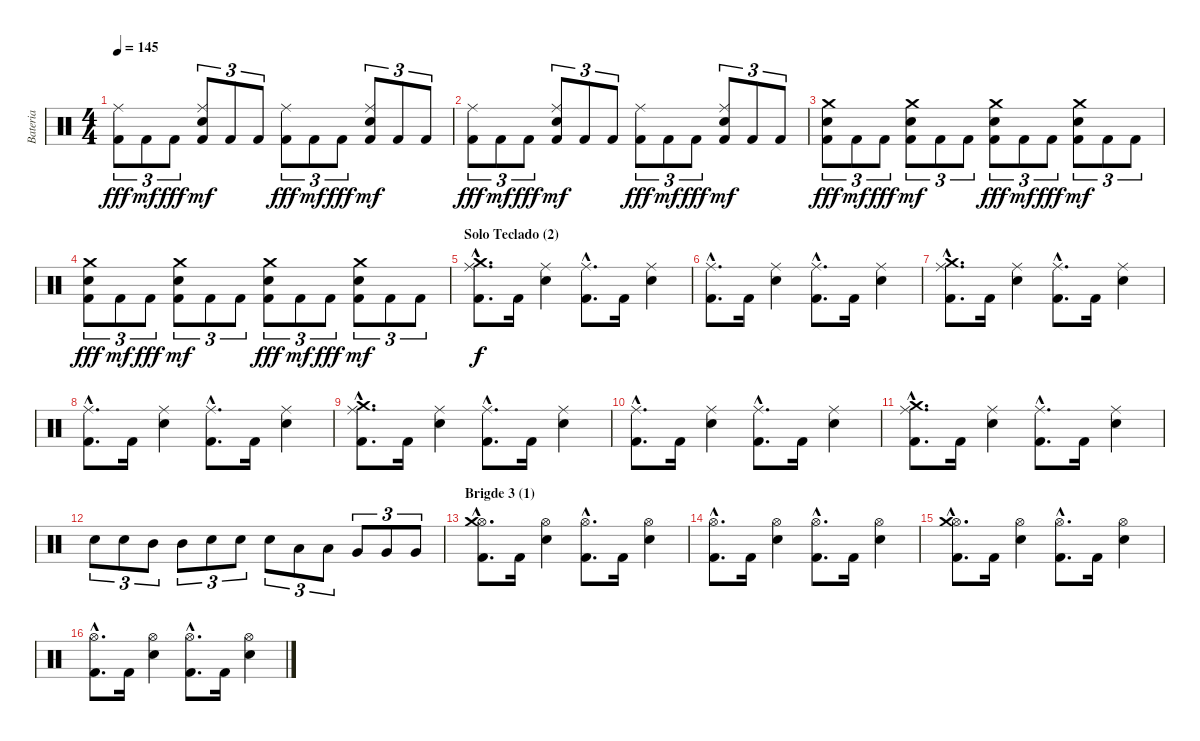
\track ("Bateria" "Bateria") {instrument percussion}
\staff {score}
\articulation defaults
\ts (4 4)
\tempo 145
\clef neutral
\ks c
("Kick (hit) 2" "Ride (middle)").8{tu (3 2) dy fff} "Kick (hit) 2".8{tu (3 2) dy mf} "Kick (hit) 2".8{tu (3 2) dy fff} ("Kick (hit) 2" "Snare (hit) 2" "Ride (middle)").8{tu (3 2) dy mf} "Kick (hit) 2".8{tu (3 2)} "Kick (hit) 2".8{tu (3 2)} ("Kick (hit) 2" "Ride (middle)").8{tu (3 2) dy fff} "Kick (hit) 2".8{tu (3 2) dy mf} "Kick (hit) 2".8{tu (3 2) dy fff} ("Kick (hit) 2" "Snare (hit) 2" "Ride (middle)").8{tu (3 2) dy mf} "Kick (hit) 2".8{tu (3 2)} "Kick (hit) 2".8{tu (3 2)} |
("Kick (hit) 2" "Ride (middle)").8{tu (3 2) dy fff} "Kick (hit) 2".8{tu (3 2) dy mf} "Kick (hit) 2".8{tu (3 2) dy fff} ("Kick (hit) 2" "Snare (hit) 2" "Ride (middle)").8{tu (3 2) dy mf} "Kick (hit) 2".8{tu (3 2)} "Kick (hit) 2".8{tu (3 2)} ("Kick (hit) 2" "Ride (middle)").8{tu (3 2) dy fff} "Kick (hit) 2".8{tu (3 2) dy mf} "Kick (hit) 2".8{tu (3 2) dy fff} ("Kick (hit) 2" "Snare (hit) 2" "Ride (middle)").8{tu (3 2) dy mf} "Kick (hit) 2".8{tu (3 2)} "Kick (hit) 2".8{tu (3 2)} |
("Kick (hit) 2" "Snare (hit) 2" "Crash medium (hit)").8{tu (3 2) dy fff} "Kick (hit) 2".8{tu (3 2) dy mf} "Kick (hit) 2".8{tu (3 2) dy fff} ("Kick (hit) 2" "Snare (hit) 2" "Crash medium (hit)").8{tu (3 2) dy mf} "Kick (hit) 2".8{tu (3 2)} "Kick (hit) 2".8{tu (3 2)} ("Kick (hit) 2" "Snare (hit) 2" "Crash medium (hit)").8{tu (3 2) dy fff} "Kick (hit) 2".8{tu (3 2) dy mf} "Kick (hit) 2".8{tu (3 2) dy fff} ("Kick (hit) 2" "Snare (hit) 2" "Crash medium (hit)").8{tu (3 2) dy mf} "Kick (hit) 2".8{tu (3 2)} "Kick (hit) 2".8{tu (3 2)} |
("Kick (hit) 2" "Snare (hit) 2" "Crash medium (hit)").8{tu (3 2) dy fff} "Kick (hit) 2".8{tu (3 2) dy mf} "Kick (hit) 2".8{tu (3 2) dy fff} ("Kick (hit) 2" "Snare (hit) 2" "Crash medium (hit)").8{tu (3 2) dy mf} "Kick (hit) 2".8{tu (3 2)} "Kick (hit) 2".8{tu (3 2)} ("Kick (hit) 2" "Snare (hit) 2" "Crash medium (hit)").8{tu (3 2) dy fff} "Kick (hit) 2".8{tu (3 2) dy mf} "Kick (hit) 2".8{tu (3 2) dy fff} ("Kick (hit) 2" "Snare (hit) 2" "Crash medium (hit)").8{tu (3 2) dy mf} "Kick (hit) 2".8{tu (3 2)} "Kick (hit) 2".8{tu (3 2)} |
\section ("" "Solo Teclado (2)")
("Ride (middle)"{hac} "Crash medium (hit)"{hac} "Kick (hit) 2"{hac}).8{d dy f} "Kick (hit) 2".16 ("Ride (middle)" "Snare (hit) 2").4 ("Ride (middle)"{hac} "Kick (hit) 2"{hac}).8{d} "Kick (hit) 2".16 ("Ride (middle)" "Snare (hit) 2").4 |
("Ride (middle)"{hac} "Kick (hit) 2"{hac}).8{d} "Kick (hit) 2".16 ("Ride (middle)" "Snare (hit) 2").4 ("Ride (middle)"{hac} "Kick (hit) 2"{hac}).8{d} "Kick (hit) 2".16 ("Ride (middle)" "Snare (hit) 2").4 |
("Ride (middle)"{hac} "Crash medium (hit)"{hac} "Kick (hit) 2"{hac}).8{d} "Kick (hit) 2".16 ("Ride (middle)" "Snare (hit) 2").4 ("Ride (middle)"{hac} "Kick (hit) 2"{hac}).8{d} "Kick (hit) 2".16 ("Ride (middle)" "Snare (hit) 2").4 |
("Ride (middle)"{hac} "Kick (hit) 2"{hac}).8{d} "Kick (hit) 2".16 ("Ride (middle)" "Snare (hit) 2").4 ("Ride (middle)"{hac} "Kick (hit) 2"{hac}).8{d} "Kick (hit) 2".16 ("Ride (middle)" "Snare (hit) 2").4 |
("Ride (middle)"{hac} "Crash medium (hit)"{hac} "Kick (hit) 2"{hac}).8{d} "Kick (hit) 2".16 ("Ride (middle)" "Snare (hit) 2").4 ("Ride (middle)"{hac} "Kick (hit) 2"{hac}).8{d} "Kick (hit) 2".16 ("Ride (middle)" "Snare (hit) 2").4 |
("Ride (middle)"{hac} "Kick (hit) 2"{hac}).8{d} "Kick (hit) 2".16 ("Ride (middle)" "Snare (hit) 2").4 ("Ride (middle)"{hac} "Kick (hit) 2"{hac}).8{d} "Kick (hit) 2".16 ("Ride (middle)" "Snare (hit) 2").4 |
("Ride (middle)"{hac} "Crash medium (hit)"{hac} "Kick (hit) 2"{hac}).8{d} "Kick (hit) 2".16 ("Ride (middle)" "Snare (hit) 2").4 ("Ride (middle)"{hac} "Kick (hit) 2"{hac}).8{d} "Kick (hit) 2".16 ("Ride (middle)" "Snare (hit) 2").4 |
"Snare (hit) 2".8{tu (3 2)} "Snare (hit) 2".8{tu (3 2)} "Mid Tom (hit)".8{tu (3 2)} "Mid Tom (hit)".8{tu (3 2)} "Snare (hit) 2".8{tu (3 2)} "Snare (hit) 2".8{tu (3 2)} "Snare (hit) 2".8{tu (3 2)} "Low Tom (hit)".8{tu (3 2)} "Low Tom (hit)".8{tu (3 2)} "Very Low Tom (hit)".8{tu (3 2)} "Very Low Tom (hit)".8{tu (3 2)} "Very Low Tom (hit)".8{tu (3 2)} |
\section ("" "Brigde 3 (1)")
("Hi-Hat (open)"{hac} "Crash medium (hit)"{hac} "Kick (hit) 2"{hac}).8{d} "Kick (hit) 2".16 ("Hi-Hat (open)" "Snare (hit) 2").4 ("Hi-Hat (open)"{hac} "Kick (hit) 2"{hac}).8{d} "Kick (hit) 2".16 ("Hi-Hat (open)" "Snare (hit) 2").4 |
("Hi-Hat (open)"{hac} "Kick (hit) 2"{hac}).8{d} "Kick (hit) 2".16 ("Hi-Hat (open)" "Snare (hit) 2").4 ("Hi-Hat (open)"{hac} "Kick (hit) 2"{hac}).8{d} "Kick (hit) 2".16 ("Hi-Hat (open)" "Snare (hit) 2").4 |
("Hi-Hat (open)"{hac} "Crash medium (hit)"{hac} "Kick (hit) 2"{hac}).8{d} "Kick (hit) 2".16 ("Hi-Hat (open)" "Snare (hit) 2").4 ("Hi-Hat (open)"{hac} "Kick (hit) 2"{hac}).8{d} "Kick (hit) 2".16 ("Hi-Hat (open)" "Snare (hit) 2").4 |
("Hi-Hat (open)"{hac} "Kick (hit) 2"{hac}).8{d} "Kick (hit) 2".16 ("Hi-Hat (open)" "Snare (hit) 2").4 ("Hi-Hat (open)"{hac} "Kick (hit) 2"{hac}).8{d} "Kick (hit) 2".16 ("Hi-Hat (open)" "Snare (hit) 2").4
